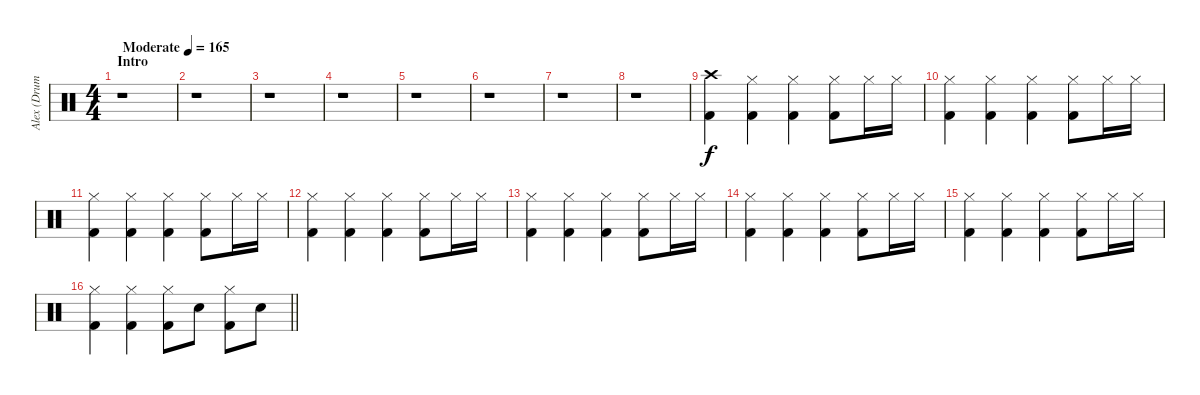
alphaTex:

\track ("Alex (Drums)" "Alex (Drum") {instrument percussion}
\staff {score}
\articulation defaults
\ts (4 4)
\section ("" "Intro")
\tempo (165 "Moderate")
\clef neutral
\ks c
r.1{dy f} |
r.1 |
r.1 |
r.1 |
r.1 |
r.1 |
r.1 |
r.1 |
("Crash high (hit)" "Kick (hit) 2").4 ("Hi-Hat (closed)" "Kick (hit) 2").4 ("Hi-Hat (closed)" "Kick (hit) 2").4 ("Hi-Hat (closed)" "Kick (hit) 2").8 "Hi-Hat (closed)".16 "Hi-Hat (closed)".16 |
("Hi-Hat (closed)" "Kick (hit) 2").4 ("Hi-Hat (closed)" "Kick (hit) 2").4 ("Hi-Hat (closed)" "Kick (hit) 2").4 ("Hi-Hat (closed)" "Kick (hit) 2").8 "Hi-Hat (closed)".16 "Hi-Hat (closed)".16 |
("Hi-Hat (closed)" "Kick (hit) 2").4 ("Hi-Hat (closed)" "Kick (hit) 2").4 ("Hi-Hat (closed)" "Kick (hit) 2").4 ("Hi-Hat (closed)" "Kick (hit) 2").8 "Hi-Hat (closed)".16 "Hi-Hat (closed)".16 |
("Hi-Hat (closed)" "Kick (hit) 2").4 ("Hi-Hat (closed)" "Kick (hit) 2").4 ("Hi-Hat (closed)" "Kick (hit) 2").4 ("Hi-Hat (closed)" "Kick (hit) 2").8 "Hi-Hat (closed)".16 "Hi-Hat (closed)".16 |
("Hi-Hat (closed)" "Kick (hit) 2").4 ("Hi-Hat (closed)" "Kick (hit) 2").4 ("Hi-Hat (closed)" "Kick (hit) 2").4 ("Hi-Hat (closed)" "Kick (hit) 2").8 "Hi-Hat (closed)".16 "Hi-Hat (closed)".16 |
("Hi-Hat (closed)" "Kick (hit) 2").4 ("Hi-Hat (closed)" "Kick (hit) 2").4 ("Hi-Hat (closed)" "Kick (hit) 2").4 ("Hi-Hat (closed)" "Kick (hit) 2").8 "Hi-Hat (closed)".16 "Hi-Hat (closed)".16 |
("Hi-Hat (closed)" "Kick (hit) 2").4 ("Hi-Hat (closed)" "Kick (hit) 2").4 ("Hi-Hat (closed)" "Kick (hit) 2").4 ("Hi-Hat (closed)" "Kick (hit) 2").8 "Hi-Hat (closed)".16 "Hi-Hat (closed)".16 |
\barLineRight lightlight
("Hi-Hat (closed)" "Kick (hit) 2").4 ("Hi-Hat (closed)" "Kick (hit) 2").4 ("Hi-Hat (closed)" "Kick (hit) 2").8 "Snare (hit) 2".8 ("Hi-Hat (closed)" "Kick (hit) 2").8 "Snare (hit) 2".8
